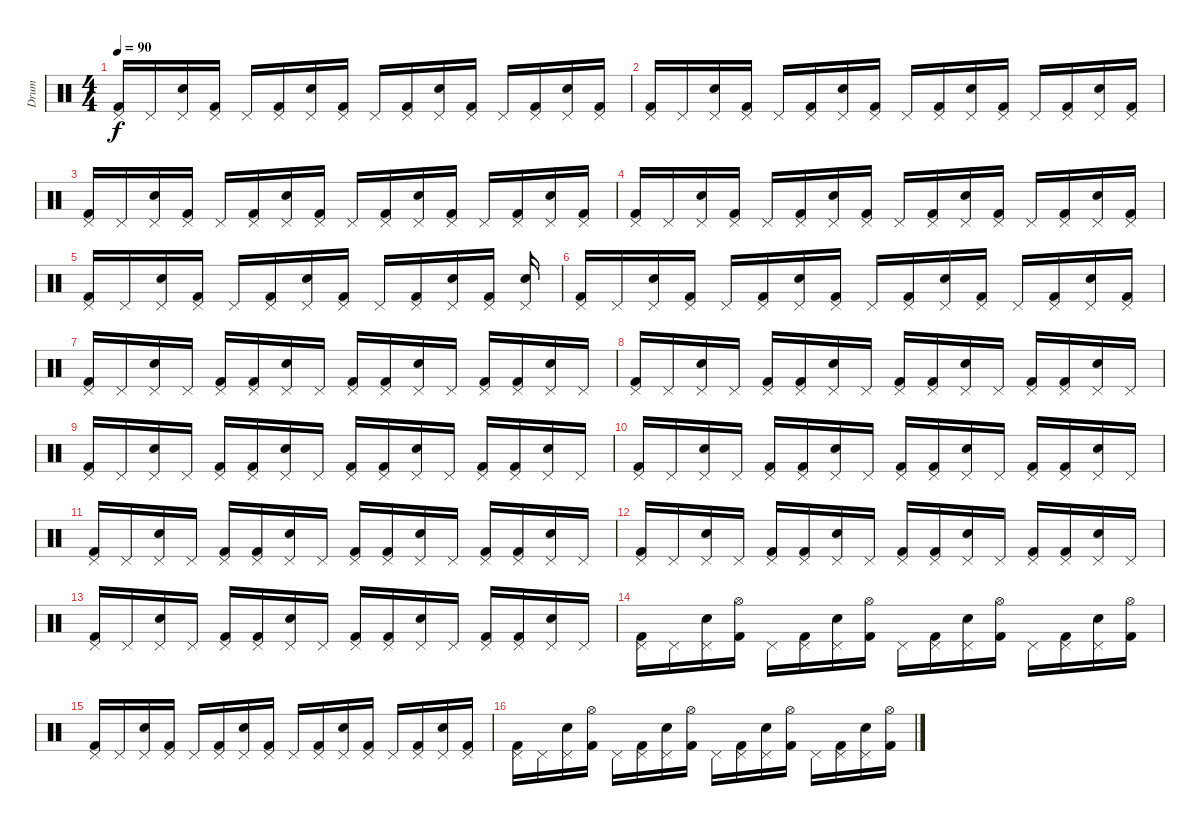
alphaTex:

\track ("Drum" "Drum") {instrument percussion}
\staff {score}
\articulation defaults
\ts (4 4)
\tempo 90
\clef neutral
\ks c
("Pedal Hi-Hat (hit)" "Kick (hit) 2").16{dy f} "Pedal Hi-Hat (hit)".16 ("Pedal Hi-Hat (hit)" "Snare (hit) 2").16 ("Pedal Hi-Hat (hit)" "Kick (hit) 2").16 "Pedal Hi-Hat (hit)".16 ("Pedal Hi-Hat (hit)" "Kick (hit) 2").16 ("Pedal Hi-Hat (hit)" "Snare (hit) 2").16 ("Pedal Hi-Hat (hit)" "Kick (hit) 2").16 "Pedal Hi-Hat (hit)".16 ("Pedal Hi-Hat (hit)" "Kick (hit) 2").16 ("Pedal Hi-Hat (hit)" "Snare (hit) 2").16 ("Pedal Hi-Hat (hit)" "Kick (hit) 2").16 "Pedal Hi-Hat (hit)".16 ("Pedal Hi-Hat (hit)" "Kick (hit) 2").16 ("Pedal Hi-Hat (hit)" "Snare (hit) 2").16 ("Pedal Hi-Hat (hit)" "Kick (hit) 2").16 |
("Pedal Hi-Hat (hit)" "Kick (hit) 2").16 "Pedal Hi-Hat (hit)".16 ("Pedal Hi-Hat (hit)" "Snare (hit) 2").16 ("Pedal Hi-Hat (hit)" "Kick (hit) 2").16 "Pedal Hi-Hat (hit)".16 ("Pedal Hi-Hat (hit)" "Kick (hit) 2").16 ("Pedal Hi-Hat (hit)" "Snare (hit) 2").16 ("Pedal Hi-Hat (hit)" "Kick (hit) 2").16 "Pedal Hi-Hat (hit)".16 ("Pedal Hi-Hat (hit)" "Kick (hit) 2").16 ("Pedal Hi-Hat (hit)" "Snare (hit) 2").16 ("Pedal Hi-Hat (hit)" "Kick (hit) 2").16 "Pedal Hi-Hat (hit)".16 ("Pedal Hi-Hat (hit)" "Kick (hit) 2").16 ("Pedal Hi-Hat (hit)" "Snare (hit) 2").16 ("Pedal Hi-Hat (hit)" "Kick (hit) 2").16 |
("Pedal Hi-Hat (hit)" "Kick (hit) 2").16 "Pedal Hi-Hat (hit)".16 ("Pedal Hi-Hat (hit)" "Snare (hit) 2").16 ("Pedal Hi-Hat (hit)" "Kick (hit) 2").16 "Pedal Hi-Hat (hit)".16 ("Pedal Hi-Hat (hit)" "Kick (hit) 2").16 ("Pedal Hi-Hat (hit)" "Snare (hit) 2").16 ("Pedal Hi-Hat (hit)" "Kick (hit) 2").16 "Pedal Hi-Hat (hit)".16 ("Pedal Hi-Hat (hit)" "Kick (hit) 2").16 ("Pedal Hi-Hat (hit)" "Snare (hit) 2").16 ("Pedal Hi-Hat (hit)" "Kick (hit) 2").16 "Pedal Hi-Hat (hit)".16 ("Pedal Hi-Hat (hit)" "Kick (hit) 2").16 ("Pedal Hi-Hat (hit)" "Snare (hit) 2").16 ("Pedal Hi-Hat (hit)" "Kick (hit) 2").16 |
("Pedal Hi-Hat (hit)" "Kick (hit) 2").16 "Pedal Hi-Hat (hit)".16 ("Pedal Hi-Hat (hit)" "Snare (hit) 2").16 ("Pedal Hi-Hat (hit)" "Kick (hit) 2").16 "Pedal Hi-Hat (hit)".16 ("Pedal Hi-Hat (hit)" "Kick (hit) 2").16 ("Pedal Hi-Hat (hit)" "Snare (hit) 2").16 ("Pedal Hi-Hat (hit)" "Kick (hit) 2").16 "Pedal Hi-Hat (hit)".16 ("Pedal Hi-Hat (hit)" "Kick (hit) 2").16 ("Pedal Hi-Hat (hit)" "Snare (hit) 2").16 ("Pedal Hi-Hat (hit)" "Kick (hit) 2").16 "Pedal Hi-Hat (hit)".16 ("Pedal Hi-Hat (hit)" "Kick (hit) 2").16 ("Pedal Hi-Hat (hit)" "Snare (hit) 2").16 ("Pedal Hi-Hat (hit)" "Kick (hit) 2").16 |
("Pedal Hi-Hat (hit)" "Kick (hit) 2").16 "Pedal Hi-Hat (hit)".16 ("Pedal Hi-Hat (hit)" "Snare (hit) 2").16 ("Pedal Hi-Hat (hit)" "Kick (hit) 2").16 "Pedal Hi-Hat (hit)".16 ("Pedal Hi-Hat (hit)" "Kick (hit) 2").16 ("Pedal Hi-Hat (hit)" "Snare (hit) 2").16 ("Pedal Hi-Hat (hit)" "Kick (hit) 2").16 "Pedal Hi-Hat (hit)".16 ("Pedal Hi-Hat (hit)" "Kick (hit) 2").16 ("Pedal Hi-Hat (hit)" "Snare (hit) 2").16 ("Pedal Hi-Hat (hit)" "Kick (hit) 2").16 ("Pedal Hi-Hat (hit)" "Snare (hit) 2").16 |
("Pedal Hi-Hat (hit)" "Kick (hit) 2").16 "Pedal Hi-Hat (hit)".16 ("Pedal Hi-Hat (hit)" "Snare (hit) 2").16 ("Pedal Hi-Hat (hit)" "Kick (hit) 2").16 "Pedal Hi-Hat (hit)".16 ("Pedal Hi-Hat (hit)" "Kick (hit) 2").16 ("Pedal Hi-Hat (hit)" "Snare (hit) 2").16 ("Pedal Hi-Hat (hit)" "Kick (hit) 2").16 "Pedal Hi-Hat (hit)".16 ("Pedal Hi-Hat (hit)" "Kick (hit) 2").16 ("Pedal Hi-Hat (hit)" "Snare (hit) 2").16 ("Pedal Hi-Hat (hit)" "Kick (hit) 2").16 "Pedal Hi-Hat (hit)".16 ("Pedal Hi-Hat (hit)" "Kick (hit) 2").16 ("Pedal Hi-Hat (hit)" "Snare (hit) 2").16 ("Pedal Hi-Hat (hit)" "Kick (hit) 2").16 |
("Pedal Hi-Hat (hit)" "Kick (hit) 2").16 "Pedal Hi-Hat (hit)".16 ("Pedal Hi-Hat (hit)" "Snare (hit) 2").16 "Pedal Hi-Hat (hit)".16 ("Pedal Hi-Hat (hit)" "Kick (hit) 2").16 ("Pedal Hi-Hat (hit)" "Kick (hit) 2").16 ("Pedal Hi-Hat (hit)" "Snare (hit) 2").16 "Pedal Hi-Hat (hit)".16 ("Pedal Hi-Hat (hit)" "Kick (hit) 2").16 ("Pedal Hi-Hat (hit)" "Kick (hit) 2").16 ("Pedal Hi-Hat (hit)" "Snare (hit) 2").16 "Pedal Hi-Hat (hit)".16 ("Pedal Hi-Hat (hit)" "Kick (hit) 2").16 ("Pedal Hi-Hat (hit)" "Kick (hit) 2").16 ("Pedal Hi-Hat (hit)" "Snare (hit) 2").16 "Pedal Hi-Hat (hit)".16 |
("Pedal Hi-Hat (hit)" "Kick (hit) 2").16 "Pedal Hi-Hat (hit)".16 ("Pedal Hi-Hat (hit)" "Snare (hit) 2").16 "Pedal Hi-Hat (hit)".16 ("Pedal Hi-Hat (hit)" "Kick (hit) 2").16 ("Pedal Hi-Hat (hit)" "Kick (hit) 2").16 ("Pedal Hi-Hat (hit)" "Snare (hit) 2").16 "Pedal Hi-Hat (hit)".16 ("Pedal Hi-Hat (hit)" "Kick (hit) 2").16 ("Pedal Hi-Hat (hit)" "Kick (hit) 2").16 ("Pedal Hi-Hat (hit)" "Snare (hit) 2").16 "Pedal Hi-Hat (hit)".16 ("Pedal Hi-Hat (hit)" "Kick (hit) 2").16 ("Pedal Hi-Hat (hit)" "Kick (hit) 2").16 ("Pedal Hi-Hat (hit)" "Snare (hit) 2").16 "Pedal Hi-Hat (hit)".16 |
("Pedal Hi-Hat (hit)" "Kick (hit) 2").16 "Pedal Hi-Hat (hit)".16 ("Pedal Hi-Hat (hit)" "Snare (hit) 2").16 "Pedal Hi-Hat (hit)".16 ("Pedal Hi-Hat (hit)" "Kick (hit) 2").16 ("Pedal Hi-Hat (hit)" "Kick (hit) 2").16 ("Pedal Hi-Hat (hit)" "Snare (hit) 2").16 "Pedal Hi-Hat (hit)".16 ("Pedal Hi-Hat (hit)" "Kick (hit) 2").16 ("Pedal Hi-Hat (hit)" "Kick (hit) 2").16 ("Pedal Hi-Hat (hit)" "Snare (hit) 2").16 "Pedal Hi-Hat (hit)".16 ("Pedal Hi-Hat (hit)" "Kick (hit) 2").16 ("Pedal Hi-Hat (hit)" "Kick (hit) 2").16 ("Pedal Hi-Hat (hit)" "Snare (hit) 2").16 "Pedal Hi-Hat (hit)".16 |
("Pedal Hi-Hat (hit)" "Kick (hit) 2").16 "Pedal Hi-Hat (hit)".16 ("Pedal Hi-Hat (hit)" "Snare (hit) 2").16 "Pedal Hi-Hat (hit)".16 ("Pedal Hi-Hat (hit)" "Kick (hit) 2").16 ("Pedal Hi-Hat (hit)" "Kick (hit) 2").16 ("Pedal Hi-Hat (hit)" "Snare (hit) 2").16 "Pedal Hi-Hat (hit)".16 ("Pedal Hi-Hat (hit)" "Kick (hit) 2").16 ("Pedal Hi-Hat (hit)" "Kick (hit) 2").16 ("Pedal Hi-Hat (hit)" "Snare (hit) 2").16 "Pedal Hi-Hat (hit)".16 ("Pedal Hi-Hat (hit)" "Kick (hit) 2").16 ("Pedal Hi-Hat (hit)" "Kick (hit) 2").16 ("Pedal Hi-Hat (hit)" "Snare (hit) 2").16 "Pedal Hi-Hat (hit)".16 |
("Pedal Hi-Hat (hit)" "Kick (hit) 2").16 "Pedal Hi-Hat (hit)".16 ("Pedal Hi-Hat (hit)" "Snare (hit) 2").16 "Pedal Hi-Hat (hit)".16 ("Pedal Hi-Hat (hit)" "Kick (hit) 2").16 ("Pedal Hi-Hat (hit)" "Kick (hit) 2").16 ("Pedal Hi-Hat (hit)" "Snare (hit) 2").16 "Pedal Hi-Hat (hit)".16 ("Pedal Hi-Hat (hit)" "Kick (hit) 2").16 ("Pedal Hi-Hat (hit)" "Kick (hit) 2").16 ("Pedal Hi-Hat (hit)" "Snare (hit) 2").16 "Pedal Hi-Hat (hit)".16 ("Pedal Hi-Hat (hit)" "Kick (hit) 2").16 ("Pedal Hi-Hat (hit)" "Kick (hit) 2").16 ("Pedal Hi-Hat (hit)" "Snare (hit) 2").16 "Pedal Hi-Hat (hit)".16 |
("Pedal Hi-Hat (hit)" "Kick (hit) 2").16 "Pedal Hi-Hat (hit)".16 ("Pedal Hi-Hat (hit)" "Snare (hit) 2").16 "Pedal Hi-Hat (hit)".16 ("Pedal Hi-Hat (hit)" "Kick (hit) 2").16 ("Pedal Hi-Hat (hit)" "Kick (hit) 2").16 ("Pedal Hi-Hat (hit)" "Snare (hit) 2").16 "Pedal Hi-Hat (hit)".16 ("Pedal Hi-Hat (hit)" "Kick (hit) 2").16 ("Pedal Hi-Hat (hit)" "Kick (hit) 2").16 ("Pedal Hi-Hat (hit)" "Snare (hit) 2").16 "Pedal Hi-Hat (hit)".16 ("Pedal Hi-Hat (hit)" "Kick (hit) 2").16 ("Pedal Hi-Hat (hit)" "Kick (hit) 2").16 ("Pedal Hi-Hat (hit)" "Snare (hit) 2").16 "Pedal Hi-Hat (hit)".16 |
("Pedal Hi-Hat (hit)" "Kick (hit) 2").16 "Pedal Hi-Hat (hit)".16 ("Pedal Hi-Hat (hit)" "Snare (hit) 2").16 "Pedal Hi-Hat (hit)".16 ("Pedal Hi-Hat (hit)" "Kick (hit) 2").16 ("Pedal Hi-Hat (hit)" "Kick (hit) 2").16 ("Pedal Hi-Hat (hit)" "Snare (hit) 2").16 "Pedal Hi-Hat (hit)".16 ("Pedal Hi-Hat (hit)" "Kick (hit) 2").16 ("Pedal Hi-Hat (hit)" "Kick (hit) 2").16 ("Pedal Hi-Hat (hit)" "Snare (hit) 2").16 "Pedal Hi-Hat (hit)".16 ("Pedal Hi-Hat (hit)" "Kick (hit) 2").16 ("Pedal Hi-Hat (hit)" "Kick (hit) 2").16 ("Pedal Hi-Hat (hit)" "Snare (hit) 2").16 "Pedal Hi-Hat (hit)".16 |
("Pedal Hi-Hat (hit)" "Kick (hit) 2").16 "Pedal Hi-Hat (hit)".16 ("Pedal Hi-Hat (hit)" "Snare (hit) 2").16 ("Hi-Hat (open)" "Kick (hit) 2").16 "Pedal Hi-Hat (hit)".16 ("Pedal Hi-Hat (hit)" "Kick (hit) 2").16 ("Pedal Hi-Hat (hit)" "Snare (hit) 2").16 ("Hi-Hat (open)" "Kick (hit) 2").16 "Pedal Hi-Hat (hit)".16 ("Pedal Hi-Hat (hit)" "Kick (hit) 2").16 ("Pedal Hi-Hat (hit)" "Snare (hit) 2").16 ("Hi-Hat (open)" "Kick (hit) 2").16 "Pedal Hi-Hat (hit)".16 ("Pedal Hi-Hat (hit)" "Kick (hit) 2").16 ("Pedal Hi-Hat (hit)" "Snare (hit) 2").16 ("Hi-Hat (open)" "Kick (hit) 2").16 |
("Pedal Hi-Hat (hit)" "Kick (hit) 2").16 "Pedal Hi-Hat (hit)".16 ("Pedal Hi-Hat (hit)" "Snare (hit) 2").16 ("Pedal Hi-Hat (hit)" "Kick (hit) 2").16 "Pedal Hi-Hat (hit)".16 ("Pedal Hi-Hat (hit)" "Kick (hit) 2").16 ("Pedal Hi-Hat (hit)" "Snare (hit) 2").16 ("Pedal Hi-Hat (hit)" "Kick (hit) 2").16 "Pedal Hi-Hat (hit)".16 ("Pedal Hi-Hat (hit)" "Kick (hit) 2").16 ("Pedal Hi-Hat (hit)" "Snare (hit) 2").16 ("Pedal Hi-Hat (hit)" "Kick (hit) 2").16 "Pedal Hi-Hat (hit)".16 ("Pedal Hi-Hat (hit)" "Kick (hit) 2").16 ("Pedal Hi-Hat (hit)" "Snare (hit) 2").16 ("Pedal Hi-Hat (hit)" "Kick (hit) 2").16 |
("Pedal Hi-Hat (hit)" "Kick (hit) 2").16 "Pedal Hi-Hat (hit)".16 ("Pedal Hi-Hat (hit)" "Snare (hit) 2").16 ("Hi-Hat (open)" "Kick (hit) 2").16 "Pedal Hi-Hat (hit)".16 ("Pedal Hi-Hat (hit)" "Kick (hit) 2").16 ("Pedal Hi-Hat (hit)" "Snare (hit) 2").16 ("Hi-Hat (open)" "Kick (hit) 2").16 "Pedal Hi-Hat (hit)".16 ("Pedal Hi-Hat (hit)" "Kick (hit) 2").16 ("Pedal Hi-Hat (hit)" "Snare (hit) 2").16 ("Hi-Hat (open)" "Kick (hit) 2").16 "Pedal Hi-Hat (hit)".16 ("Pedal Hi-Hat (hit)" "Kick (hit) 2").16 ("Pedal Hi-Hat (hit)" "Snare (hit) 2").16 ("Hi-Hat (open)" "Kick (hit) 2").16
